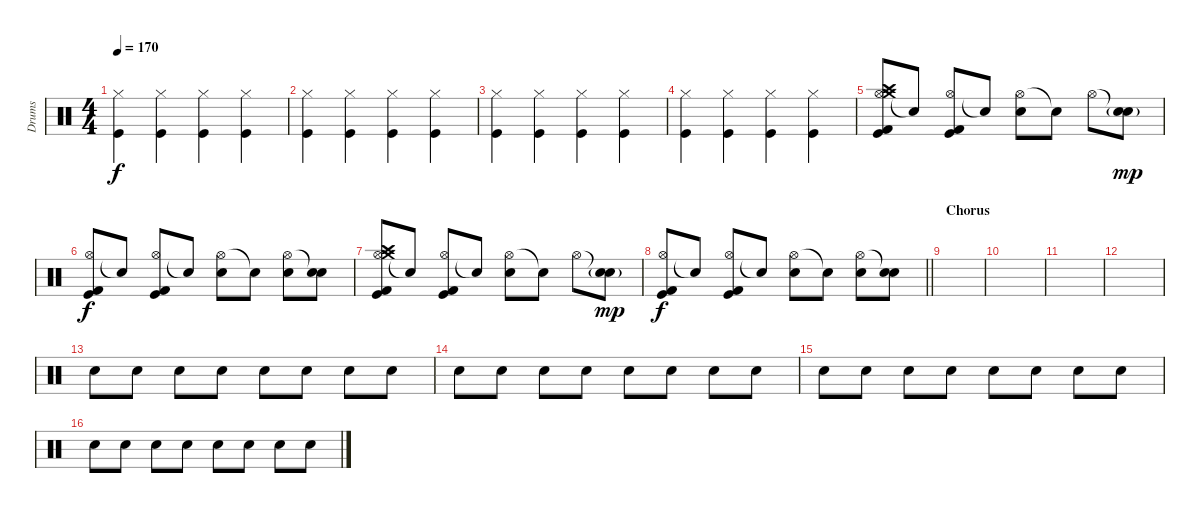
\track ("Drums" "Drums") {instrument percussion}
\staff {score}
\articulation defaults
\ts (4 4)
\tempo 170
\clef neutral
\ks c
("Kick (hit)" "Hi-Hat (closed)").4{dy f} ("Kick (hit)" "Hi-Hat (closed)").4 ("Kick (hit)" "Hi-Hat (closed)").4 ("Kick (hit)" "Hi-Hat (closed)").4 |
("Kick (hit)" "Hi-Hat (closed)").4 ("Kick (hit)" "Hi-Hat (closed)").4 ("Kick (hit)" "Hi-Hat (closed)").4 ("Kick (hit)" "Hi-Hat (closed)").4 |
("Kick (hit)" "Hi-Hat (closed)").4 ("Kick (hit)" "Hi-Hat (closed)").4 ("Kick (hit)" "Hi-Hat (closed)").4 ("Kick (hit)" "Hi-Hat (closed)").4 |
("Kick (hit)" "Hi-Hat (closed)").4 ("Kick (hit)" "Hi-Hat (closed)").4 ("Kick (hit)" "Hi-Hat (closed)").4 ("Kick (hit)" "Hi-Hat (closed)").4 |
("Hi-Hat (open)" "Crash high (hit)" "Crash medium (hit)" "Kick (hit)" "Kick (hit) 2").8 "Snare (hit)"{t}.8 ("Hi-Hat (open)" "Kick (hit)" "Kick (hit) 2").8 "Snare (hit)"{t}.8 ("Hi-Hat (open)" "Electric Snare (hit)").8 "Snare (hit)"{t}.8 "Hi-Hat (open)".8 ("Snare (hit)"{t} "Electric Snare (hit)"{g}).8{dy mp} |
("Hi-Hat (open)" "Kick (hit)" "Kick (hit) 2").8{dy f} "Snare (hit)"{t}.8 ("Hi-Hat (open)" "Kick (hit)" "Kick (hit) 2").8 "Snare (hit)"{t}.8 ("Hi-Hat (open)" "Electric Snare (hit)").8 "Snare (hit)"{t}.8 ("Hi-Hat (open)" "Electric Snare (hit)").8 ("Snare (hit)"{t} "Electric Snare (hit)").8 |
("Hi-Hat (open)" "Crash high (hit)" "Crash medium (hit)" "Kick (hit)" "Kick (hit) 2").8 "Snare (hit)"{t}.8 ("Hi-Hat (open)" "Kick (hit)" "Kick (hit) 2").8 "Snare (hit)"{t}.8 ("Hi-Hat (open)" "Electric Snare (hit)").8 "Snare (hit)"{t}.8 "Hi-Hat (open)".8 ("Snare (hit)"{t} "Electric Snare (hit)"{g}).8{dy mp} |
\barLineRight lightlight
("Hi-Hat (open)" "Kick (hit)" "Kick (hit) 2").8{dy f} "Snare (hit)"{t}.8 ("Hi-Hat (open)" "Kick (hit)" "Kick (hit) 2").8 "Snare (hit)"{t}.8 ("Hi-Hat (open)" "Electric Snare (hit)").8 "Snare (hit)"{t}.8 ("Hi-Hat (open)" "Electric Snare (hit)").8 ("Snare (hit)"{t} "Electric Snare (hit)").8 |
\section ("" "Chorus")
|
|
|
|
"Electric Snare (hit)".8 "Electric Snare (hit)".8 "Electric Snare (hit)".8 "Electric Snare (hit)".8 "Electric Snare (hit)".8 "Electric Snare (hit)".8 "Electric Snare (hit)".8 "Electric Snare (hit)".8 |
"Electric Snare (hit)".8 "Electric Snare (hit)".8 "Electric Snare (hit)".8 "Electric Snare (hit)".8 "Electric Snare (hit)".8 "Electric Snare (hit)".8 "Electric Snare (hit)".8 "Electric Snare (hit)".8 |
"Electric Snare (hit)".8 "Electric Snare (hit)".8 "Electric Snare (hit)".8 "Electric Snare (hit)".8 "Electric Snare (hit)".8 "Electric Snare (hit)".8 "Electric Snare (hit)".8 "Electric Snare (hit)".8 |
"Electric Snare (hit)".8 "Electric Snare (hit)".8 "Electric Snare (hit)".8 "Electric Snare (hit)".8 "Electric Snare (hit)".8 "Electric Snare (hit)".8 "Electric Snare (hit)".8 "Electric Snare (hit)".8
